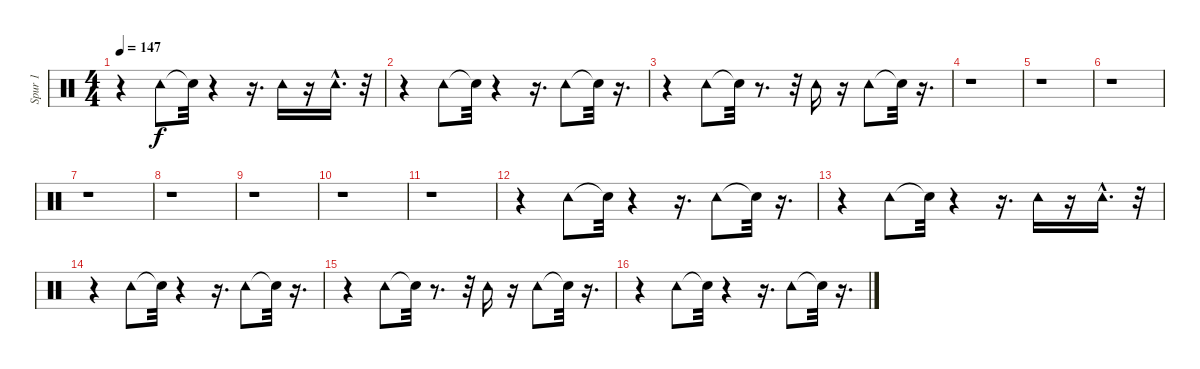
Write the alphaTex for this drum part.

\track ("Spur 1" "Spur 1") {instrument percussion}
\staff {score}
\articulation defaults
\ts (4 4)
\tempo 147
\clef neutral
\ks c
r.4{dy f} "Tambourine (hit)".8 "Snare (hit)"{t}.32 r.4 r.16{d} "Tambourine (hit)".16 r.16 "Tambourine (hit)"{hac}.16{d} r.32 |
r.4 "Tambourine (hit)".8 "Snare (hit)"{t}.32 r.4 r.16{d} "Tambourine (hit)".8 "Snare (hit)"{t}.32 r.16{d} |
r.4 "Tambourine (hit)".8 "Snare (hit)"{t}.32 r.8{d} r.32 "Tambourine (hit)".16 r.16 "Tambourine (hit)".8 "Snare (hit)"{t}.32 r.16{d} |
r.1 |
r.1 |
r.1 |
r.1 |
r.1 |
r.1 |
r.1 |
r.1 |
r.4 "Tambourine (hit)".8 "Snare (hit)"{t}.32 r.4 r.16{d} "Tambourine (hit)".8 "Snare (hit)"{t}.32 r.16{d} |
r.4 "Tambourine (hit)".8 "Snare (hit)"{t}.32 r.4 r.16{d} "Tambourine (hit)".16 r.16 "Tambourine (hit)"{hac}.16{d} r.32 |
r.4 "Tambourine (hit)".8 "Snare (hit)"{t}.32 r.4 r.16{d} "Tambourine (hit)".8 "Snare (hit)"{t}.32 r.16{d} |
r.4 "Tambourine (hit)".8 "Snare (hit)"{t}.32 r.8{d} r.32 "Tambourine (hit)".16 r.16 "Tambourine (hit)".8 "Snare (hit)"{t}.32 r.16{d} |
r.4 "Tambourine (hit)".8 "Snare (hit)"{t}.32 r.4 r.16{d} "Tambourine (hit)".8 "Snare (hit)"{t}.32 r.16{d}
